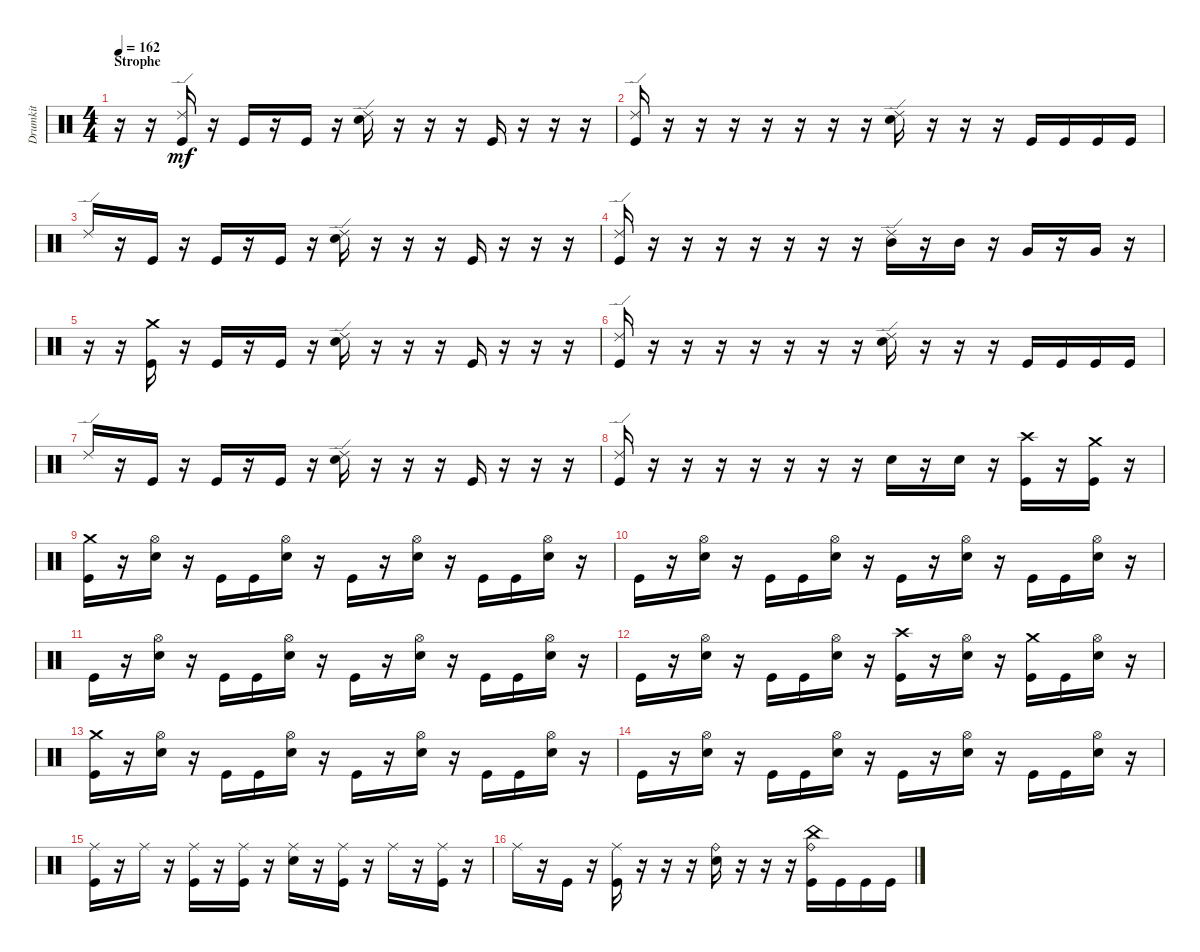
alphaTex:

\track ("Drumkit" "Drumkit") {instrument percussion}
\staff {score}
\articulation defaults
\ts (4 4)
\section ("" "Strophe")
\tempo 162
\clef neutral
\ks c
r.16{dy mf} r.16 ("Kick (hit)" "Ride (edge) 2").16 r.16 "Kick (hit)".16 r.16 "Kick (hit)".16 r.16 ("Snare (hit) 2" "Ride (edge) 2").16 r.16 r.16 r.16 "Kick (hit)".16 r.16 r.16 r.16 |
("Kick (hit)" "Ride (edge) 2").16 r.16 r.16 r.16 r.16 r.16 r.16 r.16 ("Snare (hit) 2" "Ride (edge) 2").16 r.16 r.16 r.16 "Kick (hit)".16 "Kick (hit)".16 "Kick (hit)".16 "Kick (hit)".16 |
"Ride (edge) 2".16 r.16 "Kick (hit)".16 r.16 "Kick (hit)".16 r.16 "Kick (hit)".16 r.16 ("Snare (hit) 2" "Ride (edge) 2").16 r.16 r.16 r.16 "Kick (hit)".16 r.16 r.16 r.16 |
("Kick (hit)" "Ride (edge) 2").16 r.16 r.16 r.16 r.16 r.16 r.16 r.16 ("Mid Tom (hit)" "Ride (edge) 2").16 r.16 "Mid Tom (hit)".16 r.16 "Very Low Tom (hit)".16 r.16 "Very Low Tom (hit)".16 r.16 |
r.16 r.16 ("Kick (hit)" "Crash medium (hit)").16 r.16 "Kick (hit)".16 r.16 "Kick (hit)".16 r.16 ("Snare (hit) 2" "Ride (edge) 2").16 r.16 r.16 r.16 "Kick (hit)".16 r.16 r.16 r.16 |
("Kick (hit)" "Ride (edge) 2").16 r.16 r.16 r.16 r.16 r.16 r.16 r.16 ("Snare (hit) 2" "Ride (edge) 2").16 r.16 r.16 r.16 "Kick (hit)".16 "Kick (hit)".16 "Kick (hit)".16 "Kick (hit)".16 |
"Ride (edge) 2".16 r.16 "Kick (hit)".16 r.16 "Kick (hit)".16 r.16 "Kick (hit)".16 r.16 ("Snare (hit) 2" "Ride (edge) 2").16 r.16 r.16 r.16 "Kick (hit)".16 r.16 r.16 r.16 |
("Kick (hit)" "Ride (edge) 2").16 r.16 r.16 r.16 r.16 r.16 r.16 r.16 "Snare (hit) 2".16 r.16 "Snare (hit) 2".16 r.16 ("Kick (hit)" "Crash high (hit)").16 r.16 ("Kick (hit)" "Crash medium (hit)").16 r.16 |
("Kick (hit)" "Crash medium (hit)").16 r.16 ("Snare (hit) 2" "Hi-Hat (open)").16 r.16 "Kick (hit)".16 "Kick (hit)".16 ("Snare (hit) 2" "Hi-Hat (open)").16 r.16 "Kick (hit)".16 r.16 ("Snare (hit) 2" "Hi-Hat (open)").16 r.16 "Kick (hit)".16 "Kick (hit)".16 ("Snare (hit) 2" "Hi-Hat (open)").16 r.16 |
"Kick (hit)".16 r.16 ("Snare (hit) 2" "Hi-Hat (open)").16 r.16 "Kick (hit)".16 "Kick (hit)".16 ("Snare (hit) 2" "Hi-Hat (open)").16 r.16 "Kick (hit)".16 r.16 ("Snare (hit) 2" "Hi-Hat (open)").16 r.16 "Kick (hit)".16 "Kick (hit)".16 ("Snare (hit) 2" "Hi-Hat (open)").16 r.16 |
"Kick (hit)".16 r.16 ("Snare (hit) 2" "Hi-Hat (open)").16 r.16 "Kick (hit)".16 "Kick (hit)".16 ("Snare (hit) 2" "Hi-Hat (open)").16 r.16 "Kick (hit)".16 r.16 ("Snare (hit) 2" "Hi-Hat (open)").16 r.16 "Kick (hit)".16 "Kick (hit)".16 ("Snare (hit) 2" "Hi-Hat (open)").16 r.16 |
"Kick (hit)".16 r.16 ("Snare (hit) 2" "Hi-Hat (open)").16 r.16 "Kick (hit)".16 "Kick (hit)".16 ("Snare (hit) 2" "Hi-Hat (open)").16 r.16 ("Kick (hit)" "Crash high (hit)").16 r.16 ("Snare (hit) 2" "Hi-Hat (open)").16 r.16 ("Kick (hit)" "Crash medium (hit)").16 "Kick (hit)".16 ("Snare (hit) 2" "Hi-Hat (open)").16 r.16 |
("Kick (hit)" "Crash medium (hit)").16 r.16 ("Snare (hit) 2" "Hi-Hat (open)").16 r.16 "Kick (hit)".16 "Kick (hit)".16 ("Snare (hit) 2" "Hi-Hat (open)").16 r.16 "Kick (hit)".16 r.16 ("Snare (hit) 2" "Hi-Hat (open)").16 r.16 "Kick (hit)".16 "Kick (hit)".16 ("Snare (hit) 2" "Hi-Hat (open)").16 r.16 |
"Kick (hit)".16 r.16 ("Snare (hit) 2" "Hi-Hat (open)").16 r.16 "Kick (hit)".16 "Kick (hit)".16 ("Snare (hit) 2" "Hi-Hat (open)").16 r.16 "Kick (hit)".16 r.16 ("Snare (hit) 2" "Hi-Hat (open)").16 r.16 "Kick (hit)".16 "Kick (hit)".16 ("Snare (hit) 2" "Hi-Hat (open)").16 r.16 |
("Kick (hit)" "Ride (middle)").16 r.16 "Ride (middle)".16 r.16 ("Kick (hit)" "Ride (middle)").16 r.16 ("Kick (hit)" "Ride (middle)").16 r.16 ("Snare (hit) 2" "Ride (middle)").16 r.16 ("Kick (hit)" "Ride (middle)").16 r.16 "Ride (middle)".16 r.16 ("Kick (hit)" "Ride (middle)").16 r.16 |
"Ride (middle)".16 r.16 "Kick (hit)".16 r.16 ("Kick (hit)" "Ride (middle)").16 r.16 r.16 r.16 ("Snare (hit) 2" "Ride (bell)").16 r.16 r.16 r.16 ("Kick (hit)" "Ride (bell)" "China (hit)").16 "Kick (hit)".16 "Kick (hit)".16 "Kick (hit)".16
